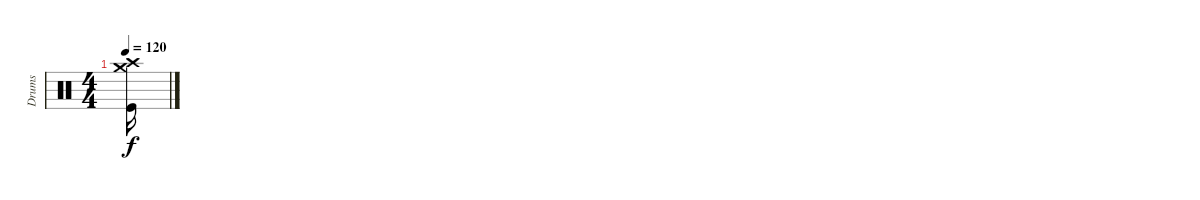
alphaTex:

\track ("Drums" "Drums") {instrument percussion}
\staff {score}
\articulation defaults
\ts (4 4)
\tempo 120
\clef neutral
\ks c
("Crash medium (hit)" "Crash high (hit)" "Kick (hit)").16{dy f}
